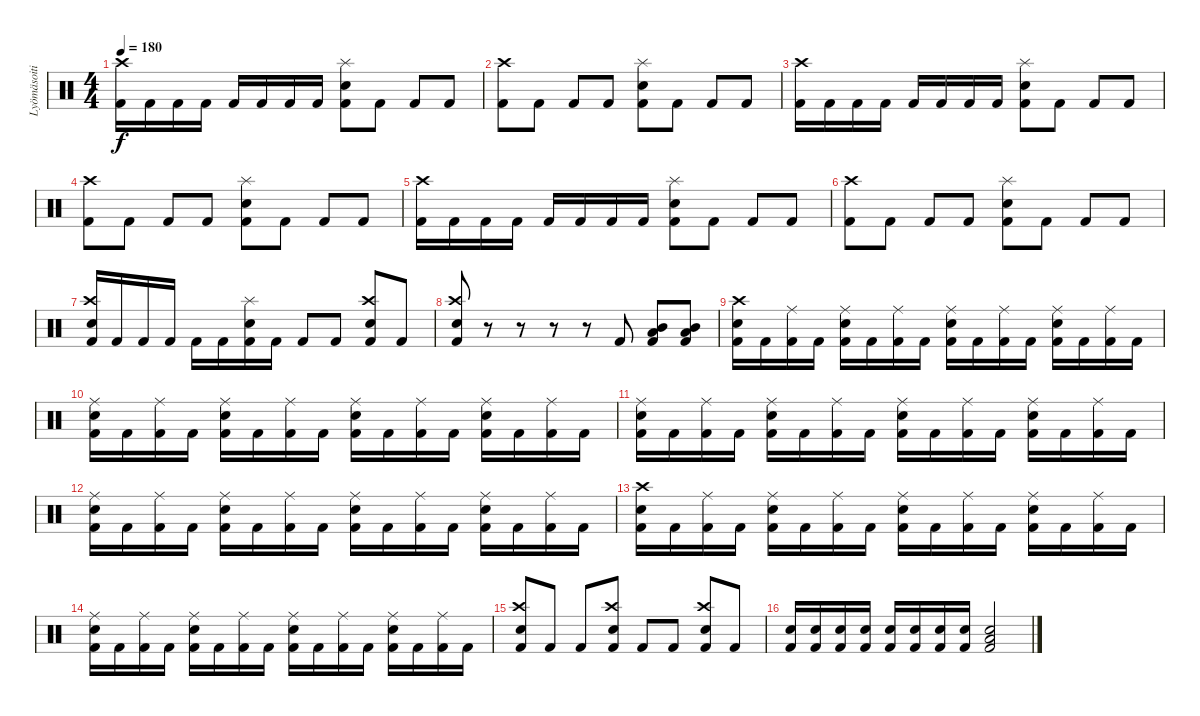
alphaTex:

\track ("Lyömäsoitin" "Lyömäsoiti") {instrument percussion}
\staff {score}
\articulation defaults
\ts (4 4)
\tempo 180
\clef neutral
\ks c
("Kick (hit) 2" "Crash high (hit)").16{dy f} "Kick (hit) 2".16 "Kick (hit) 2".16 "Kick (hit) 2".16 "Kick (hit) 2".16 "Kick (hit) 2".16 "Kick (hit) 2".16 "Kick (hit) 2".16 ("Kick (hit) 2" "Electric Snare (hit)" "Splash (hit)").8 "Kick (hit) 2".8 "Kick (hit) 2".8 "Kick (hit) 2".8 |
("Kick (hit) 2" "Crash high (hit)").8 "Kick (hit) 2".8 "Kick (hit) 2".8 "Kick (hit) 2".8 ("Kick (hit) 2" "Electric Snare (hit)" "Splash (hit)").8 "Kick (hit) 2".8 "Kick (hit) 2".8 "Kick (hit) 2".8 |
("Kick (hit) 2" "Crash high (hit)").16 "Kick (hit) 2".16 "Kick (hit) 2".16 "Kick (hit) 2".16 "Kick (hit) 2".16 "Kick (hit) 2".16 "Kick (hit) 2".16 "Kick (hit) 2".16 ("Kick (hit) 2" "Electric Snare (hit)" "Splash (hit)").8 "Kick (hit) 2".8 "Kick (hit) 2".8 "Kick (hit) 2".8 |
("Kick (hit) 2" "Crash high (hit)").8 "Kick (hit) 2".8 "Kick (hit) 2".8 "Kick (hit) 2".8 ("Kick (hit) 2" "Electric Snare (hit)" "Splash (hit)").8 "Kick (hit) 2".8 "Kick (hit) 2".8 "Kick (hit) 2".8 |
("Kick (hit) 2" "Crash high (hit)").16 "Kick (hit) 2".16 "Kick (hit) 2".16 "Kick (hit) 2".16 "Kick (hit) 2".16 "Kick (hit) 2".16 "Kick (hit) 2".16 "Kick (hit) 2".16 ("Kick (hit) 2" "Electric Snare (hit)" "Splash (hit)").8 "Kick (hit) 2".8 "Kick (hit) 2".8 "Kick (hit) 2".8 |
("Kick (hit) 2" "Crash high (hit)").8 "Kick (hit) 2".8 "Kick (hit) 2".8 "Kick (hit) 2".8 ("Kick (hit) 2" "Electric Snare (hit)" "Splash (hit)").8 "Kick (hit) 2".8 "Kick (hit) 2".8 "Kick (hit) 2".8 |
("Kick (hit) 2" "Electric Snare (hit)" "Crash high (hit)").16 "Kick (hit) 2".16 "Kick (hit) 2".16 "Kick (hit) 2".16 "Kick (hit) 2".16 "Kick (hit) 2".16 ("Kick (hit) 2" "Electric Snare (hit)" "Splash (hit)").16 "Kick (hit) 2".16 "Kick (hit) 2".8 "Kick (hit) 2".8 ("Kick (hit) 2" "Electric Snare (hit)" "Crash high (hit)").8 "Kick (hit) 2".8 |
("Kick (hit) 2" "Electric Snare (hit)" "Crash high (hit)").8 r.8 r.8 r.8 r.8 "Kick (hit) 2".8 ("Kick (hit) 2" "Mid Tom (hit)" "Low Tom (hit)").8 ("Kick (hit) 2" "Mid Tom (hit)" "Low Tom (hit)").8 |
("Kick (hit) 2" "Electric Snare (hit)" "Crash high (hit)").16 "Kick (hit) 2".16 ("Kick (hit) 2" "Ride (middle)").16 "Kick (hit) 2".16 ("Kick (hit) 2" "Electric Snare (hit)" "Ride (middle)").16 "Kick (hit) 2".16 ("Kick (hit) 2" "Ride (middle)").16 "Kick (hit) 2".16 ("Kick (hit) 2" "Electric Snare (hit)" "Ride (middle)").16 "Kick (hit) 2".16 ("Kick (hit) 2" "Ride (middle)").16 "Kick (hit) 2".16 ("Kick (hit) 2" "Electric Snare (hit)" "Ride (middle)").16 "Kick (hit) 2".16 ("Kick (hit) 2" "Ride (middle)").16 "Kick (hit) 2".16 |
("Kick (hit) 2" "Electric Snare (hit)" "Ride (middle)").16 "Kick (hit) 2".16 ("Kick (hit) 2" "Ride (middle)").16 "Kick (hit) 2".16 ("Kick (hit) 2" "Electric Snare (hit)" "Ride (middle)").16 "Kick (hit) 2".16 ("Kick (hit) 2" "Ride (middle)").16 "Kick (hit) 2".16 ("Kick (hit) 2" "Electric Snare (hit)" "Ride (middle)").16 "Kick (hit) 2".16 ("Kick (hit) 2" "Ride (middle)").16 "Kick (hit) 2".16 ("Kick (hit) 2" "Electric Snare (hit)" "Ride (middle)").16 "Kick (hit) 2".16 ("Kick (hit) 2" "Ride (middle)").16 "Kick (hit) 2".16 |
("Kick (hit) 2" "Electric Snare (hit)" "Ride (middle)").16 "Kick (hit) 2".16 ("Kick (hit) 2" "Ride (middle)").16 "Kick (hit) 2".16 ("Kick (hit) 2" "Electric Snare (hit)" "Ride (middle)").16 "Kick (hit) 2".16 ("Kick (hit) 2" "Ride (middle)").16 "Kick (hit) 2".16 ("Kick (hit) 2" "Electric Snare (hit)" "Ride (middle)").16 "Kick (hit) 2".16 ("Kick (hit) 2" "Ride (middle)").16 "Kick (hit) 2".16 ("Kick (hit) 2" "Electric Snare (hit)" "Ride (middle)").16 "Kick (hit) 2".16 ("Kick (hit) 2" "Ride (middle)").16 "Kick (hit) 2".16 |
("Kick (hit) 2" "Electric Snare (hit)" "Ride (middle)").16 "Kick (hit) 2".16 ("Kick (hit) 2" "Ride (middle)").16 "Kick (hit) 2".16 ("Kick (hit) 2" "Electric Snare (hit)" "Ride (middle)").16 "Kick (hit) 2".16 ("Kick (hit) 2" "Ride (middle)").16 "Kick (hit) 2".16 ("Kick (hit) 2" "Electric Snare (hit)" "Ride (middle)").16 "Kick (hit) 2".16 ("Kick (hit) 2" "Ride (middle)").16 "Kick (hit) 2".16 ("Kick (hit) 2" "Electric Snare (hit)" "Ride (middle)").16 "Kick (hit) 2".16 ("Kick (hit) 2" "Ride (middle)").16 "Kick (hit) 2".16 |
("Kick (hit) 2" "Electric Snare (hit)" "Crash high (hit)").16 "Kick (hit) 2".16 ("Kick (hit) 2" "Ride (middle)").16 "Kick (hit) 2".16 ("Kick (hit) 2" "Electric Snare (hit)" "Ride (middle)").16 "Kick (hit) 2".16 ("Kick (hit) 2" "Ride (middle)").16 "Kick (hit) 2".16 ("Kick (hit) 2" "Electric Snare (hit)" "Ride (middle)").16 "Kick (hit) 2".16 ("Kick (hit) 2" "Ride (middle)").16 "Kick (hit) 2".16 ("Kick (hit) 2" "Electric Snare (hit)" "Ride (middle)").16 "Kick (hit) 2".16 ("Kick (hit) 2" "Ride (middle)").16 "Kick (hit) 2".16 |
("Kick (hit) 2" "Electric Snare (hit)" "Ride (middle)").16 "Kick (hit) 2".16 ("Kick (hit) 2" "Ride (middle)").16 "Kick (hit) 2".16 ("Kick (hit) 2" "Electric Snare (hit)" "Ride (middle)").16 "Kick (hit) 2".16 ("Kick (hit) 2" "Ride (middle)").16 "Kick (hit) 2".16 ("Kick (hit) 2" "Electric Snare (hit)" "Ride (middle)").16 "Kick (hit) 2".16 ("Kick (hit) 2" "Ride (middle)").16 "Kick (hit) 2".16 ("Kick (hit) 2" "Electric Snare (hit)" "Ride (middle)").16 "Kick (hit) 2".16 ("Kick (hit) 2" "Ride (middle)").16 "Kick (hit) 2".16 |
("Kick (hit) 2" "Electric Snare (hit)" "Crash high (hit)").8 "Kick (hit) 2".8 "Kick (hit) 2".8 ("Kick (hit) 2" "Electric Snare (hit)" "Crash high (hit)").8 "Kick (hit) 2".8 "Kick (hit) 2".8 ("Kick (hit) 2" "Electric Snare (hit)" "Crash high (hit)").8 "Kick (hit) 2".8 |
("Kick (hit) 2" "Electric Snare (hit)").16 ("Kick (hit) 2" "Electric Snare (hit)").16 ("Kick (hit) 2" "Electric Snare (hit)").16 ("Kick (hit) 2" "Electric Snare (hit)").16 ("Kick (hit) 2" "Electric Snare (hit)").16 ("Kick (hit) 2" "Electric Snare (hit)").16 ("Kick (hit) 2" "Electric Snare (hit)").16 ("Kick (hit) 2" "Electric Snare (hit)").16 ("Kick (hit) 2" "Electric Snare (hit)" "Low Tom (hit)").2
